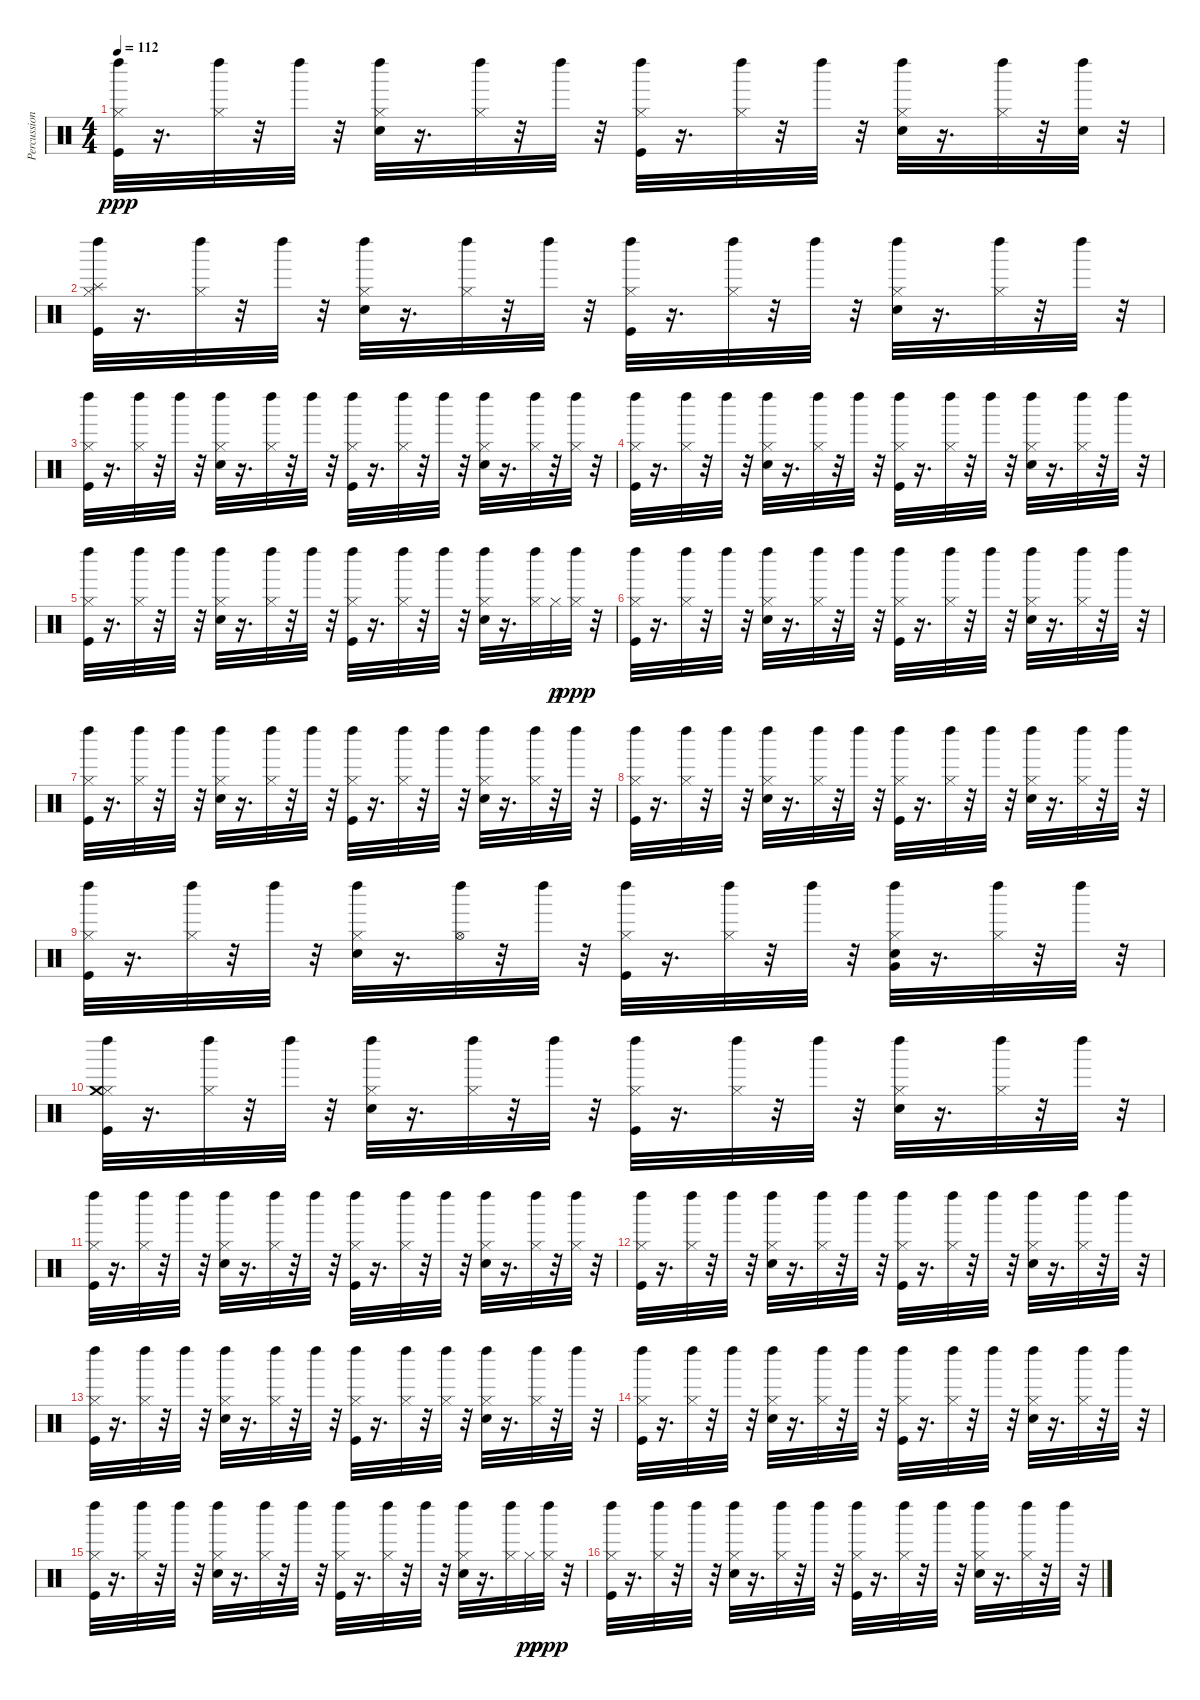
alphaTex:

\track ("Percussioni" "Percussion") {instrument percussion}
\staff {score}
\articulation defaults
\ts (4 4)
\tempo 112
\clef neutral
\ks c
("Kick (hit)" "Hi-Hat (closed)" "Left Maraca (hit)").32{dy ppp} r.16{d} ("Hi-Hat (closed)" "Left Maraca (hit)").32 r.32 "Left Maraca (hit)".32 r.32 ("Electric Snare (hit)" "Hi-Hat (closed)" "Left Maraca (hit)").32 r.16{d} ("Hi-Hat (closed)" "Left Maraca (hit)").32 r.32 "Left Maraca (hit)".32 r.32 ("Kick (hit)" "Hi-Hat (closed)" "Left Maraca (hit)").32 r.16{d} ("Hi-Hat (closed)" "Left Maraca (hit)").32 r.32 "Left Maraca (hit)".32 r.32 ("Electric Snare (hit)" "Hi-Hat (closed)" "Left Maraca (hit)").32 r.16{d} ("Hi-Hat (closed)" "Left Maraca (hit)").32 r.32 ("Electric Snare (hit)" "Left Maraca (hit)").32 r.32 |
("Kick (hit)" "Hi-Hat (closed)" "Splash (hit)" "Left Maraca (hit)").32 r.16{d} ("Hi-Hat (closed)" "Left Maraca (hit)").32 r.32 "Left Maraca (hit)".32 r.32 ("Electric Snare (hit)" "Hi-Hat (closed)" "Left Maraca (hit)").32 r.16{d} ("Hi-Hat (closed)" "Left Maraca (hit)").32 r.32 "Left Maraca (hit)".32 r.32 ("Kick (hit)" "Hi-Hat (closed)" "Left Maraca (hit)").32 r.16{d} ("Hi-Hat (closed)" "Left Maraca (hit)").32 r.32 "Left Maraca (hit)".32 r.32 ("Electric Snare (hit)" "Hi-Hat (closed)" "Left Maraca (hit)").32 r.16{d} ("Hi-Hat (closed)" "Left Maraca (hit)").32 r.32 "Left Maraca (hit)".32 r.32 |
("Kick (hit)" "Hi-Hat (closed)" "Left Maraca (hit)").32 r.16{d} ("Hi-Hat (closed)" "Left Maraca (hit)").32 r.32 "Left Maraca (hit)".32 r.32 ("Electric Snare (hit)" "Hi-Hat (closed)" "Left Maraca (hit)").32 r.16{d} ("Hi-Hat (closed)" "Left Maraca (hit)").32 r.32 "Left Maraca (hit)".32 r.32 ("Kick (hit)" "Hi-Hat (closed)" "Left Maraca (hit)").32 r.16{d} ("Hi-Hat (closed)" "Left Maraca (hit)").32 r.32 "Left Maraca (hit)".32 r.32 ("Electric Snare (hit)" "Hi-Hat (closed)" "Left Maraca (hit)").32 r.16{d} ("Hi-Hat (closed)" "Left Maraca (hit)").32 r.32 ("Hi-Hat (closed)" "Left Maraca (hit)").32 r.32 |
("Kick (hit)" "Hi-Hat (closed)" "Left Maraca (hit)").32 r.16{d} ("Hi-Hat (closed)" "Left Maraca (hit)").32 r.32 "Left Maraca (hit)".32 r.32 ("Electric Snare (hit)" "Hi-Hat (closed)" "Left Maraca (hit)").32 r.16{d} ("Hi-Hat (closed)" "Left Maraca (hit)").32 r.32 "Left Maraca (hit)".32 r.32 ("Kick (hit)" "Hi-Hat (closed)" "Left Maraca (hit)").32 r.16{d} ("Hi-Hat (closed)" "Left Maraca (hit)").32 r.32 "Left Maraca (hit)".32 r.32 ("Electric Snare (hit)" "Hi-Hat (closed)" "Left Maraca (hit)").32 r.16{d} ("Hi-Hat (closed)" "Left Maraca (hit)").32 r.32 "Left Maraca (hit)".32 r.32 |
("Kick (hit)" "Hi-Hat (closed)" "Left Maraca (hit)").32 r.16{d} ("Hi-Hat (closed)" "Left Maraca (hit)").32 r.32 "Left Maraca (hit)".32 r.32 ("Electric Snare (hit)" "Hi-Hat (closed)" "Left Maraca (hit)").32 r.16{d} ("Hi-Hat (closed)" "Left Maraca (hit)").32 r.32 "Left Maraca (hit)".32 r.32 ("Kick (hit)" "Hi-Hat (closed)" "Left Maraca (hit)").32 r.16{d} ("Hi-Hat (closed)" "Left Maraca (hit)").32 r.32 "Left Maraca (hit)".32 r.32 ("Electric Snare (hit)" "Hi-Hat (closed)" "Left Maraca (hit)").32 r.16{d} ("Hi-Hat (closed)" "Left Maraca (hit)").32 "Hi-Hat (closed)".32{dy p} ("Hi-Hat (closed)" "Left Maraca (hit)").32{dy ppp} r.32 |
("Kick (hit)" "Hi-Hat (closed)" "Left Maraca (hit)").32 r.16{d} ("Hi-Hat (closed)" "Left Maraca (hit)").32 r.32 "Left Maraca (hit)".32 r.32 ("Electric Snare (hit)" "Hi-Hat (closed)" "Left Maraca (hit)").32 r.16{d} ("Hi-Hat (closed)" "Left Maraca (hit)").32 r.32 "Left Maraca (hit)".32 r.32 ("Kick (hit)" "Hi-Hat (closed)" "Left Maraca (hit)").32 r.16{d} ("Hi-Hat (closed)" "Left Maraca (hit)").32 r.32 "Left Maraca (hit)".32 r.32 ("Electric Snare (hit)" "Hi-Hat (closed)" "Left Maraca (hit)").32 r.16{d} ("Hi-Hat (closed)" "Left Maraca (hit)").32 r.32 "Left Maraca (hit)".32 r.32 |
("Kick (hit)" "Hi-Hat (closed)" "Left Maraca (hit)").32 r.16{d} ("Hi-Hat (closed)" "Left Maraca (hit)").32 r.32 "Left Maraca (hit)".32 r.32 ("Electric Snare (hit)" "Hi-Hat (closed)" "Left Maraca (hit)").32 r.16{d} ("Hi-Hat (closed)" "Left Maraca (hit)").32 r.32 "Left Maraca (hit)".32 r.32 ("Kick (hit)" "Hi-Hat (closed)" "Left Maraca (hit)").32 r.16{d} ("Hi-Hat (closed)" "Left Maraca (hit)").32 r.32 "Left Maraca (hit)".32 r.32 ("Electric Snare (hit)" "Hi-Hat (closed)" "Left Maraca (hit)").32 r.16{d} ("Hi-Hat (closed)" "Left Maraca (hit)").32 r.32 "Left Maraca (hit)".32 r.32 |
("Kick (hit)" "Hi-Hat (closed)" "Left Maraca (hit)").32 r.16{d} ("Hi-Hat (closed)" "Left Maraca (hit)").32 r.32 "Left Maraca (hit)".32 r.32 ("Electric Snare (hit)" "Hi-Hat (closed)" "Left Maraca (hit)").32 r.16{d} ("Hi-Hat (closed)" "Left Maraca (hit)").32 r.32 "Left Maraca (hit)".32 r.32 ("Kick (hit)" "Hi-Hat (closed)" "Left Maraca (hit)").32 r.16{d} ("Hi-Hat (closed)" "Left Maraca (hit)").32 r.32 "Left Maraca (hit)".32 r.32 ("Electric Snare (hit)" "Hi-Hat (closed)" "Left Maraca (hit)").32 r.16{d} ("Hi-Hat (closed)" "Left Maraca (hit)").32 r.32 "Left Maraca (hit)".32 r.32 |
("Kick (hit)" "Hi-Hat (closed)" "Left Maraca (hit)").32 r.16{d} ("Hi-Hat (closed)" "Left Maraca (hit)").32 r.32 "Left Maraca (hit)".32 r.32 ("Electric Snare (hit)" "Hi-Hat (closed)" "Left Maraca (hit)").32 r.16{d} ("Hi-Hat (open)" "Left Maraca (hit)").32 r.32 "Left Maraca (hit)".32 r.32 ("Kick (hit)" "Hi-Hat (closed)" "Left Maraca (hit)").32 r.16{d} ("Hi-Hat (closed)" "Left Maraca (hit)").32 r.32 "Left Maraca (hit)".32 r.32 ("Electric Snare (hit)" "Hi-Hat (closed)" "Very Low Tom (hit)" "Left Maraca (hit)").32 r.16{d} ("Hi-Hat (closed)" "Left Maraca (hit)").32 r.32 "Left Maraca (hit)".32 r.32 |
("Kick (hit)" "Hi-Hat (closed)" "Crash medium (hit)" "Left Maraca (hit)").32 r.16{d} ("Hi-Hat (closed)" "Left Maraca (hit)").32 r.32 "Left Maraca (hit)".32 r.32 ("Electric Snare (hit)" "Hi-Hat (closed)" "Left Maraca (hit)").32 r.16{d} ("Hi-Hat (closed)" "Left Maraca (hit)").32 r.32 "Left Maraca (hit)".32 r.32 ("Kick (hit)" "Hi-Hat (closed)" "Left Maraca (hit)").32 r.16{d} ("Hi-Hat (closed)" "Left Maraca (hit)").32 r.32 "Left Maraca (hit)".32 r.32 ("Electric Snare (hit)" "Hi-Hat (closed)" "Left Maraca (hit)").32 r.16{d} ("Hi-Hat (closed)" "Left Maraca (hit)").32 r.32 "Left Maraca (hit)".32 r.32 |
("Kick (hit)" "Hi-Hat (closed)" "Left Maraca (hit)").32 r.16{d} ("Hi-Hat (closed)" "Left Maraca (hit)").32 r.32 "Left Maraca (hit)".32 r.32 ("Electric Snare (hit)" "Hi-Hat (closed)" "Left Maraca (hit)").32 r.16{d} ("Hi-Hat (closed)" "Left Maraca (hit)").32 r.32 "Left Maraca (hit)".32 r.32 ("Kick (hit)" "Hi-Hat (closed)" "Left Maraca (hit)").32 r.16{d} ("Hi-Hat (closed)" "Left Maraca (hit)").32 r.32 "Left Maraca (hit)".32 r.32 ("Electric Snare (hit)" "Hi-Hat (closed)" "Left Maraca (hit)").32 r.16{d} ("Hi-Hat (closed)" "Left Maraca (hit)").32 r.32 ("Hi-Hat (closed)" "Left Maraca (hit)").32 r.32 |
("Kick (hit)" "Hi-Hat (closed)" "Left Maraca (hit)").32 r.16{d} ("Hi-Hat (closed)" "Left Maraca (hit)").32 r.32 "Left Maraca (hit)".32 r.32 ("Electric Snare (hit)" "Hi-Hat (closed)" "Left Maraca (hit)").32 r.16{d} ("Hi-Hat (closed)" "Left Maraca (hit)").32 r.32 "Left Maraca (hit)".32 r.32 ("Kick (hit)" "Hi-Hat (closed)" "Left Maraca (hit)").32 r.16{d} ("Hi-Hat (closed)" "Left Maraca (hit)").32 r.32 "Left Maraca (hit)".32 r.32 ("Electric Snare (hit)" "Hi-Hat (closed)" "Left Maraca (hit)").32 r.16{d} ("Hi-Hat (closed)" "Left Maraca (hit)").32 r.32 "Left Maraca (hit)".32 r.32 |
("Kick (hit)" "Hi-Hat (closed)" "Left Maraca (hit)").32 r.16{d} ("Hi-Hat (closed)" "Left Maraca (hit)").32 r.32 "Left Maraca (hit)".32 r.32 ("Electric Snare (hit)" "Hi-Hat (closed)" "Left Maraca (hit)").32 r.16{d} ("Hi-Hat (closed)" "Left Maraca (hit)").32 r.32 "Left Maraca (hit)".32 r.32 ("Kick (hit)" "Hi-Hat (closed)" "Left Maraca (hit)").32 r.16{d} ("Hi-Hat (closed)" "Left Maraca (hit)").32 r.32 ("Hi-Hat (closed)" "Left Maraca (hit)").32 r.32 ("Electric Snare (hit)" "Hi-Hat (closed)" "Left Maraca (hit)").32 r.16{d} ("Hi-Hat (closed)" "Left Maraca (hit)").32 r.32 "Left Maraca (hit)".32 r.32 |
("Kick (hit)" "Hi-Hat (closed)" "Left Maraca (hit)").32 r.16{d} ("Hi-Hat (closed)" "Left Maraca (hit)").32 r.32 "Left Maraca (hit)".32 r.32 ("Electric Snare (hit)" "Hi-Hat (closed)" "Left Maraca (hit)").32 r.16{d} ("Hi-Hat (closed)" "Left Maraca (hit)").32 r.32 "Left Maraca (hit)".32 r.32 ("Kick (hit)" "Hi-Hat (closed)" "Left Maraca (hit)").32 r.16{d} ("Hi-Hat (closed)" "Left Maraca (hit)").32 r.32 "Left Maraca (hit)".32 r.32 ("Electric Snare (hit)" "Hi-Hat (closed)" "Left Maraca (hit)").32 r.16{d} ("Hi-Hat (closed)" "Left Maraca (hit)").32 r.32 "Left Maraca (hit)".32 r.32 |
("Kick (hit)" "Hi-Hat (closed)" "Left Maraca (hit)").32 r.16{d} ("Hi-Hat (closed)" "Left Maraca (hit)").32 r.32 "Left Maraca (hit)".32 r.32 ("Electric Snare (hit)" "Hi-Hat (closed)" "Left Maraca (hit)").32 r.16{d} ("Hi-Hat (closed)" "Left Maraca (hit)").32 r.32 "Left Maraca (hit)".32 r.32 ("Kick (hit)" "Hi-Hat (closed)" "Left Maraca (hit)").32 r.16{d} ("Hi-Hat (closed)" "Left Maraca (hit)").32 r.32 "Left Maraca (hit)".32 r.32 ("Electric Snare (hit)" "Hi-Hat (closed)" "Left Maraca (hit)").32 r.16{d} ("Hi-Hat (closed)" "Left Maraca (hit)").32 "Hi-Hat (closed)".32{dy pp} ("Hi-Hat (closed)" "Left Maraca (hit)").32{dy ppp} r.32 |
("Kick (hit)" "Hi-Hat (closed)" "Left Maraca (hit)").32 r.16{d} ("Hi-Hat (closed)" "Left Maraca (hit)").32 r.32 "Left Maraca (hit)".32 r.32 ("Electric Snare (hit)" "Hi-Hat (closed)" "Left Maraca (hit)").32 r.16{d} ("Hi-Hat (closed)" "Left Maraca (hit)").32 r.32 "Left Maraca (hit)".32 r.32 ("Kick (hit)" "Hi-Hat (closed)" "Left Maraca (hit)").32 r.16{d} ("Hi-Hat (closed)" "Left Maraca (hit)").32 r.32 "Left Maraca (hit)".32 r.32 ("Electric Snare (hit)" "Hi-Hat (closed)" "Left Maraca (hit)").32 r.16{d} ("Hi-Hat (closed)" "Left Maraca (hit)").32 r.32 "Left Maraca (hit)".32 r.32
